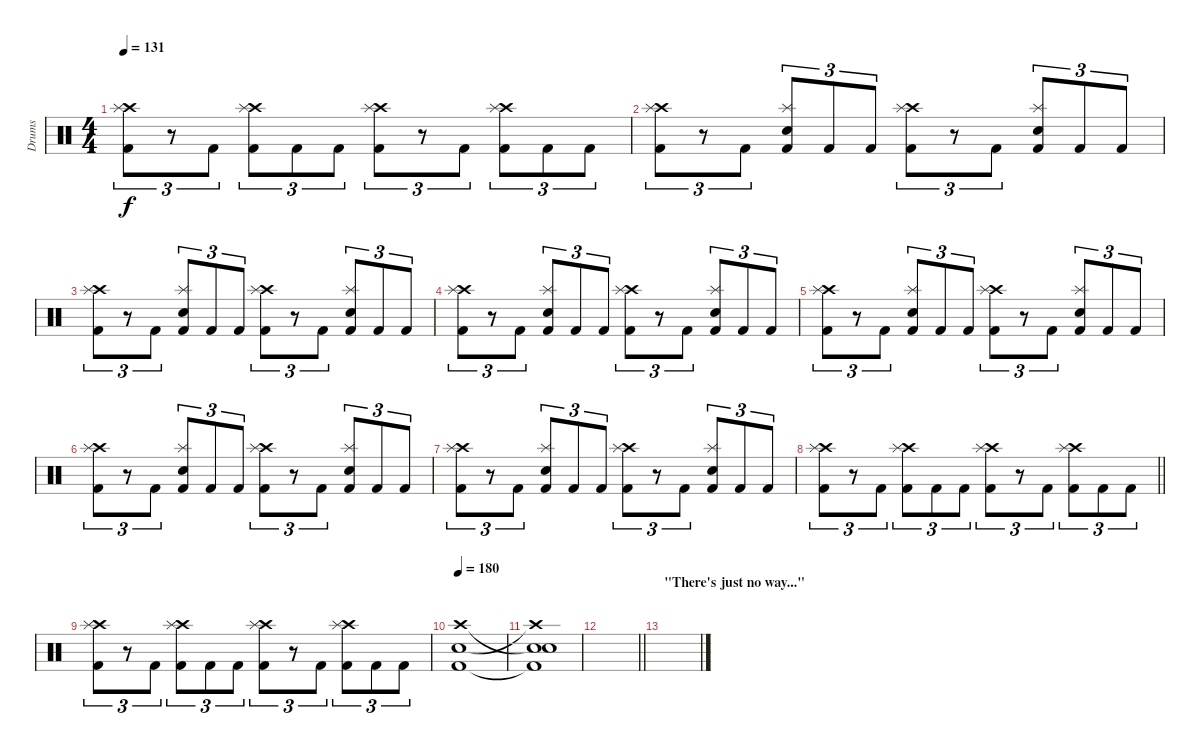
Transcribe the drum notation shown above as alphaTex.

\track ("Drums" "Drums") {instrument percussion}
\staff {score}
\articulation defaults
\ts (4 4)
\tempo 131
\clef neutral
\ks c
("Kick (hit) 2" "Crash high (hit)" "Splash (hit)").8{tu (3 2) dy f} r.8{tu (3 2)} "Kick (hit) 2".8{tu (3 2)} ("Kick (hit) 2" "Crash high (hit)" "Splash (hit)").8{tu (3 2)} "Kick (hit) 2".8{tu (3 2)} "Kick (hit) 2".8{tu (3 2)} ("Kick (hit) 2" "Crash high (hit)" "Splash (hit)").8{tu (3 2)} r.8{tu (3 2)} "Kick (hit) 2".8{tu (3 2)} ("Kick (hit) 2" "Crash high (hit)" "Splash (hit)").8{tu (3 2)} "Kick (hit) 2".8{tu (3 2)} "Kick (hit) 2".8{tu (3 2)} |
("Kick (hit) 2" "Crash high (hit)" "Splash (hit)").8{tu (3 2)} r.8{tu (3 2)} "Kick (hit) 2".8{tu (3 2)} ("Kick (hit) 2" "Electric Snare (hit)" "Splash (hit)").8{tu (3 2)} "Kick (hit) 2".8{tu (3 2)} "Kick (hit) 2".8{tu (3 2)} ("Kick (hit) 2" "Crash high (hit)" "Splash (hit)").8{tu (3 2)} r.8{tu (3 2)} "Kick (hit) 2".8{tu (3 2)} ("Kick (hit) 2" "Electric Snare (hit)" "Splash (hit)").8{tu (3 2)} "Kick (hit) 2".8{tu (3 2)} "Kick (hit) 2".8{tu (3 2)} |
("Kick (hit) 2" "Crash high (hit)" "Splash (hit)").8{tu (3 2)} r.8{tu (3 2)} "Kick (hit) 2".8{tu (3 2)} ("Kick (hit) 2" "Electric Snare (hit)" "Splash (hit)").8{tu (3 2)} "Kick (hit) 2".8{tu (3 2)} "Kick (hit) 2".8{tu (3 2)} ("Kick (hit) 2" "Crash high (hit)" "Splash (hit)").8{tu (3 2)} r.8{tu (3 2)} "Kick (hit) 2".8{tu (3 2)} ("Kick (hit) 2" "Electric Snare (hit)" "Splash (hit)").8{tu (3 2)} "Kick (hit) 2".8{tu (3 2)} "Kick (hit) 2".8{tu (3 2)} |
("Kick (hit) 2" "Crash high (hit)" "Splash (hit)").8{tu (3 2)} r.8{tu (3 2)} "Kick (hit) 2".8{tu (3 2)} ("Kick (hit) 2" "Electric Snare (hit)" "Splash (hit)").8{tu (3 2)} "Kick (hit) 2".8{tu (3 2)} "Kick (hit) 2".8{tu (3 2)} ("Kick (hit) 2" "Crash high (hit)" "Splash (hit)").8{tu (3 2)} r.8{tu (3 2)} "Kick (hit) 2".8{tu (3 2)} ("Kick (hit) 2" "Electric Snare (hit)" "Splash (hit)").8{tu (3 2)} "Kick (hit) 2".8{tu (3 2)} "Kick (hit) 2".8{tu (3 2)} |
("Kick (hit) 2" "Crash high (hit)" "Splash (hit)").8{tu (3 2)} r.8{tu (3 2)} "Kick (hit) 2".8{tu (3 2)} ("Kick (hit) 2" "Electric Snare (hit)" "Splash (hit)").8{tu (3 2)} "Kick (hit) 2".8{tu (3 2)} "Kick (hit) 2".8{tu (3 2)} ("Kick (hit) 2" "Crash high (hit)" "Splash (hit)").8{tu (3 2)} r.8{tu (3 2)} "Kick (hit) 2".8{tu (3 2)} ("Kick (hit) 2" "Electric Snare (hit)" "Splash (hit)").8{tu (3 2)} "Kick (hit) 2".8{tu (3 2)} "Kick (hit) 2".8{tu (3 2)} |
("Kick (hit) 2" "Crash high (hit)" "Splash (hit)").8{tu (3 2)} r.8{tu (3 2)} "Kick (hit) 2".8{tu (3 2)} ("Kick (hit) 2" "Electric Snare (hit)" "Splash (hit)").8{tu (3 2)} "Kick (hit) 2".8{tu (3 2)} "Kick (hit) 2".8{tu (3 2)} ("Kick (hit) 2" "Crash high (hit)" "Splash (hit)").8{tu (3 2)} r.8{tu (3 2)} "Kick (hit) 2".8{tu (3 2)} ("Kick (hit) 2" "Electric Snare (hit)" "Splash (hit)").8{tu (3 2)} "Kick (hit) 2".8{tu (3 2)} "Kick (hit) 2".8{tu (3 2)} |
("Kick (hit) 2" "Crash high (hit)" "Splash (hit)").8{tu (3 2)} r.8{tu (3 2)} "Kick (hit) 2".8{tu (3 2)} ("Kick (hit) 2" "Electric Snare (hit)" "Splash (hit)").8{tu (3 2)} "Kick (hit) 2".8{tu (3 2)} "Kick (hit) 2".8{tu (3 2)} ("Kick (hit) 2" "Crash high (hit)" "Splash (hit)").8{tu (3 2)} r.8{tu (3 2)} "Kick (hit) 2".8{tu (3 2)} ("Kick (hit) 2" "Electric Snare (hit)" "Splash (hit)").8{tu (3 2)} "Kick (hit) 2".8{tu (3 2)} "Kick (hit) 2".8{tu (3 2)} |
\barLineRight lightlight
("Kick (hit) 2" "Crash high (hit)" "Splash (hit)").8{tu (3 2)} r.8{tu (3 2)} "Kick (hit) 2".8{tu (3 2)} ("Kick (hit) 2" "Crash high (hit)" "Splash (hit)").8{tu (3 2)} "Kick (hit) 2".8{tu (3 2)} "Kick (hit) 2".8{tu (3 2)} ("Kick (hit) 2" "Crash high (hit)" "Splash (hit)").8{tu (3 2)} r.8{tu (3 2)} "Kick (hit) 2".8{tu (3 2)} ("Kick (hit) 2" "Crash high (hit)" "Splash (hit)").8{tu (3 2)} "Kick (hit) 2".8{tu (3 2)} "Kick (hit) 2".8{tu (3 2)} |
("Kick (hit) 2" "Crash high (hit)" "Splash (hit)").8{tu (3 2)} r.8{tu (3 2)} "Kick (hit) 2".8{tu (3 2)} ("Kick (hit) 2" "Crash high (hit)" "Splash (hit)").8{tu (3 2)} "Kick (hit) 2".8{tu (3 2)} "Kick (hit) 2".8{tu (3 2)} ("Kick (hit) 2" "Crash high (hit)" "Splash (hit)").8{tu (3 2)} r.8{tu (3 2)} "Kick (hit) 2".8{tu (3 2)} ("Kick (hit) 2" "Crash high (hit)" "Splash (hit)").8{tu (3 2)} "Kick (hit) 2".8{tu (3 2)} "Kick (hit) 2".8{tu (3 2)} |
\tempo 180
("Kick (hit) 2" "Crash high (hit)" "Electric Snare (hit)").1 |
("Kick (hit) 2"{t} "Snare (hit)"{t} "Crash high (hit)"{t} "Electric Snare (hit)").1 |
\barLineRight lightlight
|
\section ("" "\"There's just no way...\"")
